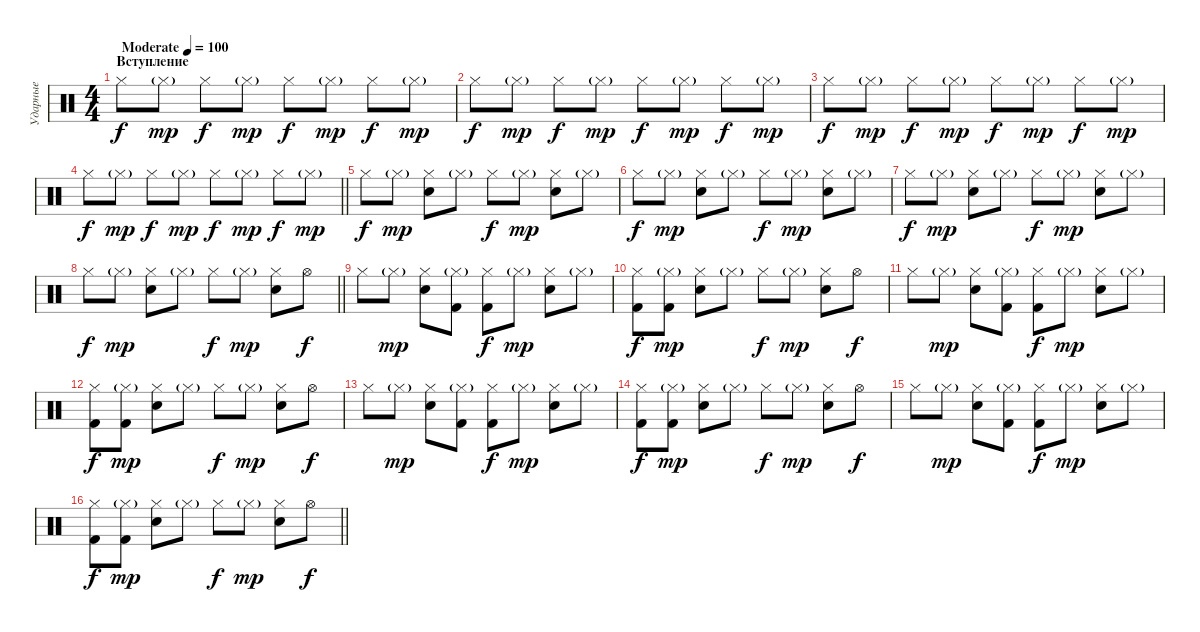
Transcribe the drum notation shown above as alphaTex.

\track ("Ударные" "Ударные") {instrument percussion}
\staff {score}
\articulation defaults
\ts (4 4)
\section ("" "Вступление")
\tempo (100 "Moderate")
\clef neutral
\ks c "Hi-Hat (closed)".8{dy f} "Hi-Hat (closed)"{g}.8{dy mp} "Hi-Hat (closed)".8{dy f} "Hi-Hat (closed)"{g}.8{dy mp} "Hi-Hat (closed)".8{dy f} "Hi-Hat (closed)"{g}.8{dy mp} "Hi-Hat (closed)".8{dy f} "Hi-Hat (closed)"{g}.8{dy mp}
|
"Hi-Hat (closed)".8{dy f} "Hi-Hat (closed)"{g}.8{dy mp} "Hi-Hat (closed)".8{dy f} "Hi-Hat (closed)"{g}.8{dy mp} "Hi-Hat (closed)".8{dy f} "Hi-Hat (closed)"{g}.8{dy mp} "Hi-Hat (closed)".8{dy f} "Hi-Hat (closed)"{g}.8{dy mp} |
"Hi-Hat (closed)".8{dy f} "Hi-Hat (closed)"{g}.8{dy mp} "Hi-Hat (closed)".8{dy f} "Hi-Hat (closed)"{g}.8{dy mp} "Hi-Hat (closed)".8{dy f} "Hi-Hat (closed)"{g}.8{dy mp} "Hi-Hat (closed)".8{dy f} "Hi-Hat (closed)"{g}.8{dy mp} |
\barLineRight lightlight "Hi-Hat (closed)".8{dy f} "Hi-Hat (closed)"{g}.8{dy mp} "Hi-Hat (closed)".8{dy f} "Hi-Hat (closed)"{g}.8{dy mp} "Hi-Hat (closed)".8{dy f} "Hi-Hat (closed)"{g}.8{dy mp} "Hi-Hat (closed)".8{dy f} "Hi-Hat (closed)"{g}.8{dy mp}
|
"Hi-Hat (closed)".8{dy f} "Hi-Hat (closed)"{g}.8{dy mp} ("Hi-Hat (closed)" "Electric Snare (hit)").8 "Hi-Hat (closed)"{g}.8 "Hi-Hat (closed)".8{dy f} "Hi-Hat (closed)"{g}.8{dy mp} ("Hi-Hat (closed)" "Electric Snare (hit)").8 "Hi-Hat (closed)"{g}.8 |
"Hi-Hat (closed)".8{dy f} "Hi-Hat (closed)"{g}.8{dy mp} ("Hi-Hat (closed)" "Electric Snare (hit)").8 "Hi-Hat (closed)"{g}.8 "Hi-Hat (closed)".8{dy f} "Hi-Hat (closed)"{g}.8{dy mp} ("Hi-Hat (closed)" "Electric Snare (hit)").8 "Hi-Hat (closed)"{g}.8 |
"Hi-Hat (closed)".8{dy f} "Hi-Hat (closed)"{g}.8{dy mp} ("Hi-Hat (closed)" "Electric Snare (hit)").8 "Hi-Hat (closed)"{g}.8 "Hi-Hat (closed)".8{dy f} "Hi-Hat (closed)"{g}.8{dy mp} ("Hi-Hat (closed)" "Electric Snare (hit)").8 "Hi-Hat (closed)"{g}.8 |
\barLineRight lightlight "Hi-Hat (closed)".8{dy f} "Hi-Hat (closed)"{g}.8{dy mp}
("Hi-Hat (closed)" "Electric Snare (hit)").8 "Hi-Hat (closed)"{g}.8 "Hi-Hat (closed)".8{dy f} "Hi-Hat (closed)"{g}.8{dy mp} ("Hi-Hat (closed)" "Electric Snare (hit)").8 "Hi-Hat (open)".8{dy f} |
"Hi-Hat (closed)".8 "Hi-Hat (closed)"{g}.8{dy mp} ("Hi-Hat (closed)" "Electric Snare (hit)").8 ("Hi-Hat (closed)"{g} "Kick (hit) 2").8 ("Hi-Hat (closed)" "Kick (hit) 2").8{dy f} "Hi-Hat (closed)"{g}.8{dy mp} ("Hi-Hat (closed)" "Electric Snare (hit)").8 "Hi-Hat (closed)"{g}.8 |
("Hi-Hat (closed)" "Kick (hit) 2").8{dy f} ("Hi-Hat (closed)"{g} "Kick (hit) 2").8{dy mp} ("Hi-Hat (closed)" "Electric Snare (hit)").8 "Hi-Hat (closed)"{g}.8 "Hi-Hat (closed)".8{dy f} "Hi-Hat (closed)"{g}.8{dy mp} ("Hi-Hat (closed)" "Electric Snare (hit)").8 "Hi-Hat (open)".8{dy f} |
"Hi-Hat (closed)".8 "Hi-Hat (closed)"{g}.8{dy mp} ("Hi-Hat (closed)" "Electric Snare (hit)").8 ("Hi-Hat (closed)"{g} "Kick (hit) 2").8 ("Hi-Hat (closed)" "Kick (hit) 2").8{dy f} "Hi-Hat (closed)"{g}.8{dy mp} ("Hi-Hat (closed)" "Electric Snare (hit)").8 "Hi-Hat (closed)"{g}.8 |
("Hi-Hat (closed)" "Kick (hit) 2").8{dy f} ("Hi-Hat (closed)"{g} "Kick (hit) 2").8{dy mp} ("Hi-Hat (closed)" "Electric Snare (hit)").8 "Hi-Hat (closed)"{g}.8 "Hi-Hat (closed)".8{dy f} "Hi-Hat (closed)"{g}.8{dy mp} ("Hi-Hat (closed)" "Electric Snare (hit)").8 "Hi-Hat (open)".8{dy f} |
"Hi-Hat (closed)".8 "Hi-Hat (closed)"{g}.8{dy mp} ("Hi-Hat (closed)" "Electric Snare (hit)").8 ("Hi-Hat (closed)"{g} "Kick (hit) 2").8 ("Hi-Hat (closed)" "Kick (hit) 2").8{dy f} "Hi-Hat (closed)"{g}.8{dy mp} ("Hi-Hat (closed)" "Electric Snare (hit)").8 "Hi-Hat (closed)"{g}.8 |
("Hi-Hat (closed)" "Kick (hit) 2").8{dy f} ("Hi-Hat (closed)"{g} "Kick (hit) 2").8{dy mp} ("Hi-Hat (closed)" "Electric Snare (hit)").8 "Hi-Hat (closed)"{g}.8 "Hi-Hat (closed)".8{dy f} "Hi-Hat (closed)"{g}.8{dy mp} ("Hi-Hat (closed)" "Electric Snare (hit)").8 "Hi-Hat (open)".8{dy f} |
"Hi-Hat (closed)".8 "Hi-Hat (closed)"{g}.8{dy mp} ("Hi-Hat (closed)" "Electric Snare (hit)").8 ("Hi-Hat (closed)"{g} "Kick (hit) 2").8 ("Hi-Hat (closed)" "Kick (hit) 2").8{dy f} "Hi-Hat (closed)"{g}.8{dy mp} ("Hi-Hat (closed)" "Electric Snare (hit)").8 "Hi-Hat (closed)"{g}.8 |
\barLineRight lightlight
("Hi-Hat (closed)" "Kick (hit) 2").8{dy f} ("Hi-Hat (closed)"{g} "Kick (hit) 2").8{dy mp} ("Hi-Hat (closed)" "Electric Snare (hit)").8 "Hi-Hat (closed)"{g}.8 "Hi-Hat (closed)".8{dy f} "Hi-Hat (closed)"{g}.8{dy mp} ("Hi-Hat (closed)" "Electric Snare (hit)").8 "Hi-Hat (open)".8{dy f}
